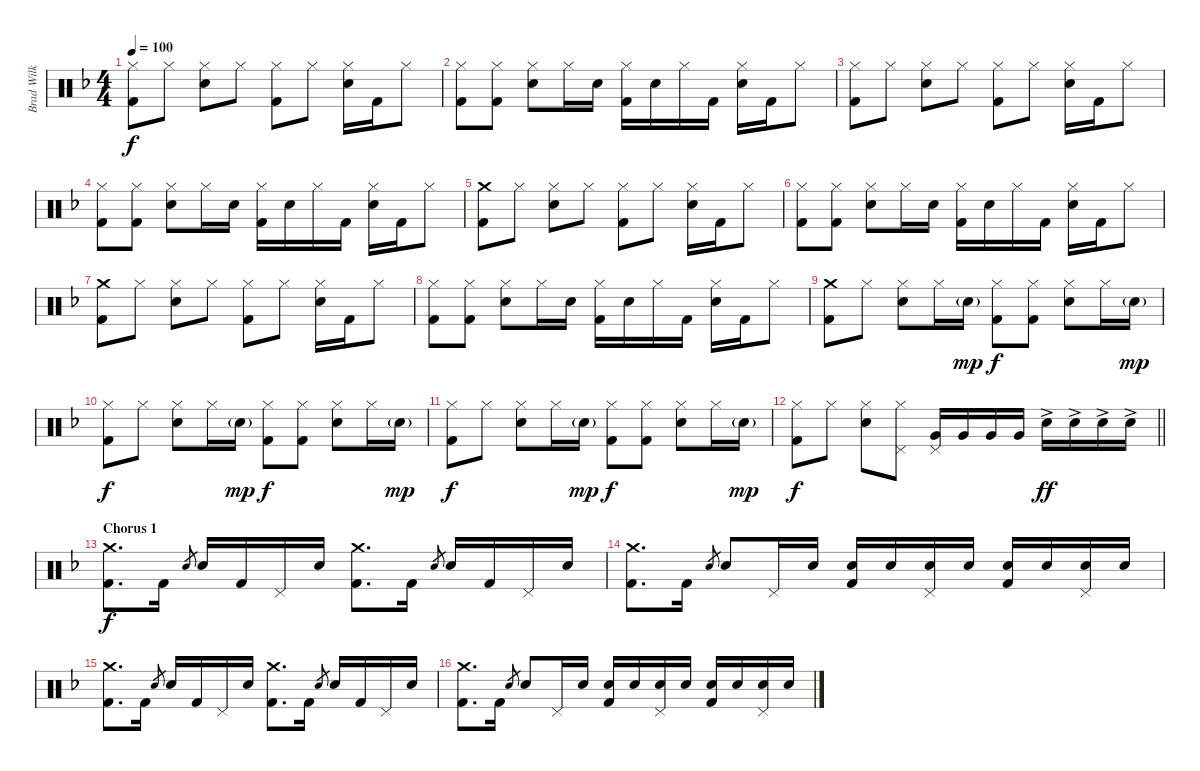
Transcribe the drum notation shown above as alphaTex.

\track ("Brad Wilk" "Brad Wilk") {instrument percussion}
\staff {score}
\articulation defaults
\ts (4 4)
\tempo 100
\clef neutral
\ks f
("Hi-Hat (closed)" "Kick (hit) 2").8{dy f} "Hi-Hat (closed)".8 ("Hi-Hat (closed)" "Electric Snare (hit)").8 "Hi-Hat (closed)".8 ("Hi-Hat (closed)" "Kick (hit) 2").8 "Hi-Hat (closed)".8 ("Hi-Hat (closed)" "Electric Snare (hit)").16 "Kick (hit) 2".16 "Hi-Hat (closed)".8 |
("Hi-Hat (closed)" "Kick (hit) 2").8 ("Hi-Hat (closed)" "Kick (hit) 2").8 ("Hi-Hat (closed)" "Electric Snare (hit)").8 "Hi-Hat (closed)".16 "Electric Snare (hit)".16 ("Hi-Hat (closed)" "Kick (hit) 2").16 "Electric Snare (hit)".16 "Hi-Hat (closed)".16 "Kick (hit) 2".16 ("Hi-Hat (closed)" "Electric Snare (hit)").16 "Kick (hit) 2".16 "Hi-Hat (closed)".8 |
("Hi-Hat (closed)" "Kick (hit) 2").8 "Hi-Hat (closed)".8 ("Hi-Hat (closed)" "Electric Snare (hit)").8 "Hi-Hat (closed)".8 ("Hi-Hat (closed)" "Kick (hit) 2").8 "Hi-Hat (closed)".8 ("Hi-Hat (closed)" "Electric Snare (hit)").16 "Kick (hit) 2".16 "Hi-Hat (closed)".8 |
("Hi-Hat (closed)" "Kick (hit) 2").8 ("Hi-Hat (closed)" "Kick (hit) 2").8 ("Hi-Hat (closed)" "Electric Snare (hit)").8 "Hi-Hat (closed)".16 "Electric Snare (hit)".16 ("Hi-Hat (closed)" "Kick (hit) 2").16 "Electric Snare (hit)".16 "Hi-Hat (closed)".16 "Kick (hit) 2".16 ("Hi-Hat (closed)" "Electric Snare (hit)").16 "Kick (hit) 2".16 "Hi-Hat (closed)".8 |
("Crash medium (hit)" "Kick (hit) 2").8 "Hi-Hat (closed)".8 ("Hi-Hat (closed)" "Electric Snare (hit)").8 "Hi-Hat (closed)".8 ("Hi-Hat (closed)" "Kick (hit) 2").8 "Hi-Hat (closed)".8 ("Hi-Hat (closed)" "Electric Snare (hit)").16 "Kick (hit) 2".16 "Hi-Hat (closed)".8 |
("Hi-Hat (closed)" "Kick (hit) 2").8 ("Hi-Hat (closed)" "Kick (hit) 2").8 ("Hi-Hat (closed)" "Electric Snare (hit)").8 "Hi-Hat (closed)".16 "Electric Snare (hit)".16 ("Hi-Hat (closed)" "Kick (hit) 2").16 "Electric Snare (hit)".16 "Hi-Hat (closed)".16 "Kick (hit) 2".16 ("Hi-Hat (closed)" "Electric Snare (hit)").16 "Kick (hit) 2".16 "Hi-Hat (closed)".8 |
("Crash medium (hit)" "Kick (hit) 2").8 "Hi-Hat (closed)".8 ("Hi-Hat (closed)" "Electric Snare (hit)").8 "Hi-Hat (closed)".8 ("Hi-Hat (closed)" "Kick (hit) 2").8 "Hi-Hat (closed)".8 ("Hi-Hat (closed)" "Electric Snare (hit)").16 "Kick (hit) 2".16 "Hi-Hat (closed)".8 |
("Hi-Hat (closed)" "Kick (hit) 2").8 ("Hi-Hat (closed)" "Kick (hit) 2").8 ("Hi-Hat (closed)" "Electric Snare (hit)").8 "Hi-Hat (closed)".16 "Electric Snare (hit)".16 ("Hi-Hat (closed)" "Kick (hit) 2").16 "Electric Snare (hit)".16 "Hi-Hat (closed)".16 "Kick (hit) 2".16 ("Hi-Hat (closed)" "Electric Snare (hit)").16 "Kick (hit) 2".16 "Hi-Hat (closed)".8 |
("Crash medium (hit)" "Kick (hit) 2").8 "Hi-Hat (closed)".8 ("Hi-Hat (closed)" "Electric Snare (hit)").8 "Hi-Hat (closed)".16 "Electric Snare (hit)"{g}.16{dy mp} ("Hi-Hat (closed)" "Kick (hit) 2").8{dy f} ("Hi-Hat (closed)" "Kick (hit) 2").8 ("Hi-Hat (closed)" "Electric Snare (hit)").8 "Hi-Hat (closed)".16 "Electric Snare (hit)"{g}.16{dy mp} |
("Hi-Hat (closed)" "Kick (hit) 2").8{dy f} "Hi-Hat (closed)".8 ("Hi-Hat (closed)" "Electric Snare (hit)").8 "Hi-Hat (closed)".16 "Electric Snare (hit)"{g}.16{dy mp} ("Hi-Hat (closed)" "Kick (hit) 2").8{dy f} ("Hi-Hat (closed)" "Kick (hit) 2").8 ("Hi-Hat (closed)" "Electric Snare (hit)").8 "Hi-Hat (closed)".16 "Electric Snare (hit)"{g}.16{dy mp} |
("Hi-Hat (closed)" "Kick (hit) 2").8{dy f} "Hi-Hat (closed)".8 ("Hi-Hat (closed)" "Electric Snare (hit)").8 "Hi-Hat (closed)".16 "Electric Snare (hit)"{g}.16{dy mp} ("Hi-Hat (closed)" "Kick (hit) 2").8{dy f} ("Hi-Hat (closed)" "Kick (hit) 2").8 ("Hi-Hat (closed)" "Electric Snare (hit)").8 "Hi-Hat (closed)".16 "Electric Snare (hit)"{g}.16{dy mp} |
\barLineRight lightlight
("Hi-Hat (closed)" "Kick (hit) 2").8{dy f} "Hi-Hat (closed)".8 ("Hi-Hat (closed)" "Electric Snare (hit)").8 ("Hi-Hat (closed)" "Pedal Hi-Hat (hit)").8 ("Pedal Hi-Hat (hit)" "Very Low Tom (hit)").16 "Very Low Tom (hit)".16 "Very Low Tom (hit)".16 "Very Low Tom (hit)".16 "Electric Snare (hit)"{ac}.16{dy ff} "Electric Snare (hit)"{ac}.16 "Electric Snare (hit)"{ac}.16 "Electric Snare (hit)"{ac}.16 |
\section ("" "Chorus 1")
("Crash medium (hit)" "Kick (hit) 2").8{d dy f} "Kick (hit) 2".16 "Electric Snare (hit)".8{gr} "Electric Snare (hit)".16 "Kick (hit) 2".16 "Pedal Hi-Hat (hit)".16 "Electric Snare (hit)".16 ("Crash medium (hit)" "Kick (hit) 2").8{d} "Kick (hit) 2".16 "Electric Snare (hit)".8{gr} "Electric Snare (hit)".16 "Kick (hit) 2".16 "Pedal Hi-Hat (hit)".16 "Electric Snare (hit)".16 |
("Crash medium (hit)" "Kick (hit) 2").8{d} "Kick (hit) 2".16 "Electric Snare (hit)".8{gr} "Electric Snare (hit)".8 "Pedal Hi-Hat (hit)".16 "Electric Snare (hit)".16 ("Electric Snare (hit)" "Kick (hit) 2").16 "Electric Snare (hit)".16 ("Pedal Hi-Hat (hit)" "Electric Snare (hit)").16 "Electric Snare (hit)".16 ("Electric Snare (hit)" "Kick (hit) 2").16 "Electric Snare (hit)".16 ("Pedal Hi-Hat (hit)" "Electric Snare (hit)").16 "Electric Snare (hit)".16 |
("Crash medium (hit)" "Kick (hit) 2").8{d} "Kick (hit) 2".16 "Electric Snare (hit)".8{gr} "Electric Snare (hit)".16 "Kick (hit) 2".16 "Pedal Hi-Hat (hit)".16 "Electric Snare (hit)".16 ("Crash medium (hit)" "Kick (hit) 2").8{d} "Kick (hit) 2".16 "Electric Snare (hit)".8{gr} "Electric Snare (hit)".16 "Kick (hit) 2".16 "Pedal Hi-Hat (hit)".16 "Electric Snare (hit)".16 |
("Crash medium (hit)" "Kick (hit) 2").8{d} "Kick (hit) 2".16 "Electric Snare (hit)".8{gr} "Electric Snare (hit)".8 "Pedal Hi-Hat (hit)".16 "Electric Snare (hit)".16 ("Electric Snare (hit)" "Kick (hit) 2").16 "Electric Snare (hit)".16 ("Pedal Hi-Hat (hit)" "Electric Snare (hit)").16 "Electric Snare (hit)".16 ("Electric Snare (hit)" "Kick (hit) 2").16 "Electric Snare (hit)".16 ("Pedal Hi-Hat (hit)" "Electric Snare (hit)").16 "Electric Snare (hit)".16
